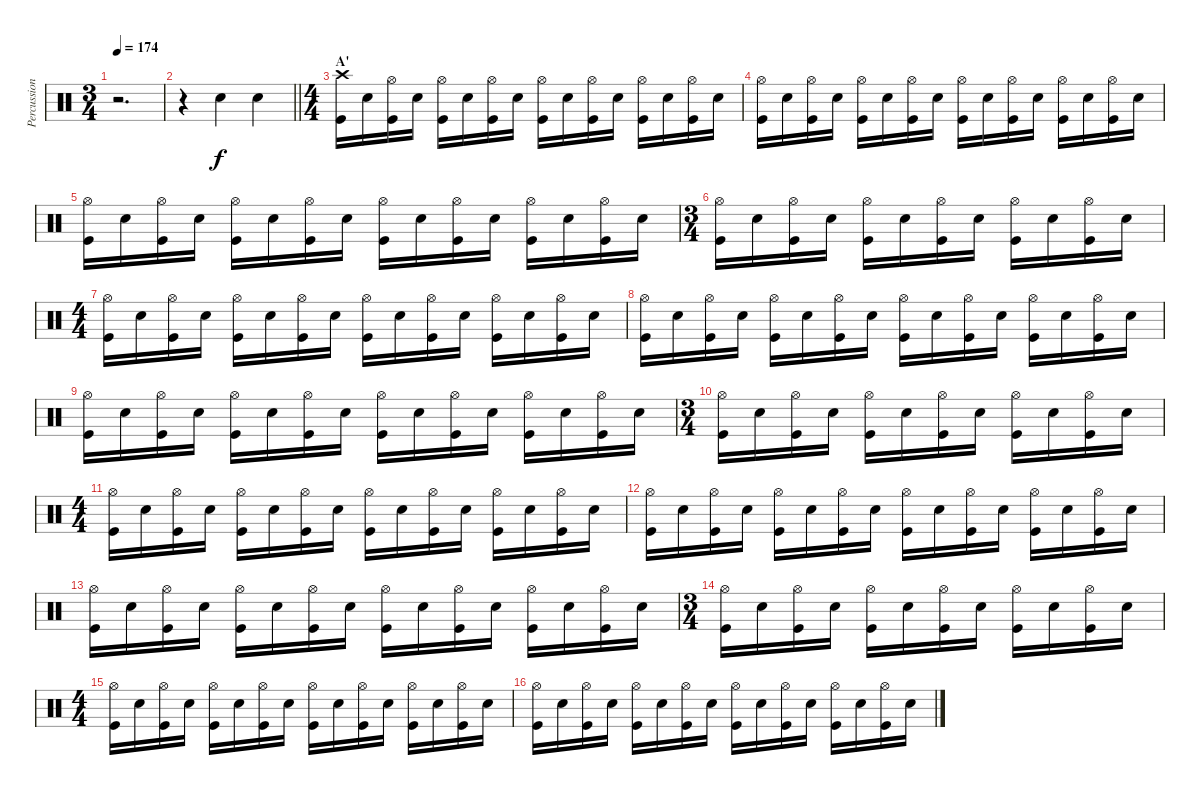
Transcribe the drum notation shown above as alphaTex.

\track ("Percussion" "Percussion") {instrument percussion}
\staff {score}
\articulation defaults
\ts (3 4)
\tempo 174
\clef neutral
\ks c
r.2{d dy f} |
\barLineRight lightlight
r.4 "Snare (hit) 2".4 "Snare (hit) 2".4 |
\ts (4 4)
\section ("" "A'")
("Crash high (hit)" "Kick (hit)").16 "Snare (hit) 2".16 ("Hi-Hat (open)" "Kick (hit)").16 "Snare (hit) 2".16 ("Hi-Hat (open)" "Kick (hit)").16 "Snare (hit) 2".16 ("Hi-Hat (open)" "Kick (hit)").16 "Snare (hit) 2".16 ("Hi-Hat (open)" "Kick (hit)").16 "Snare (hit) 2".16 ("Hi-Hat (open)" "Kick (hit)").16 "Snare (hit) 2".16 ("Hi-Hat (open)" "Kick (hit)").16 "Snare (hit) 2".16 ("Hi-Hat (open)" "Kick (hit)").16 "Snare (hit) 2".16 |
("Hi-Hat (open)" "Kick (hit)").16 "Snare (hit) 2".16 ("Hi-Hat (open)" "Kick (hit)").16 "Snare (hit) 2".16 ("Hi-Hat (open)" "Kick (hit)").16 "Snare (hit) 2".16 ("Hi-Hat (open)" "Kick (hit)").16 "Snare (hit) 2".16 ("Hi-Hat (open)" "Kick (hit)").16 "Snare (hit) 2".16 ("Hi-Hat (open)" "Kick (hit)").16 "Snare (hit) 2".16 ("Hi-Hat (open)" "Kick (hit)").16 "Snare (hit) 2".16 ("Hi-Hat (open)" "Kick (hit)").16 "Snare (hit) 2".16 |
("Hi-Hat (open)" "Kick (hit)").16 "Snare (hit) 2".16 ("Hi-Hat (open)" "Kick (hit)").16 "Snare (hit) 2".16 ("Hi-Hat (open)" "Kick (hit)").16 "Snare (hit) 2".16 ("Hi-Hat (open)" "Kick (hit)").16 "Snare (hit) 2".16 ("Hi-Hat (open)" "Kick (hit)").16 "Snare (hit) 2".16 ("Hi-Hat (open)" "Kick (hit)").16 "Snare (hit) 2".16 ("Hi-Hat (open)" "Kick (hit)").16 "Snare (hit) 2".16 ("Hi-Hat (open)" "Kick (hit)").16 "Snare (hit) 2".16 |
\ts (3 4)
("Hi-Hat (open)" "Kick (hit)").16 "Snare (hit) 2".16 ("Hi-Hat (open)" "Kick (hit)").16 "Snare (hit) 2".16 ("Hi-Hat (open)" "Kick (hit)").16 "Snare (hit) 2".16 ("Hi-Hat (open)" "Kick (hit)").16 "Snare (hit) 2".16 ("Hi-Hat (open)" "Kick (hit)").16 "Snare (hit) 2".16 ("Hi-Hat (open)" "Kick (hit)").16 "Snare (hit) 2".16 |
\ts (4 4)
("Hi-Hat (open)" "Kick (hit)").16 "Snare (hit) 2".16 ("Hi-Hat (open)" "Kick (hit)").16 "Snare (hit) 2".16 ("Hi-Hat (open)" "Kick (hit)").16 "Snare (hit) 2".16 ("Hi-Hat (open)" "Kick (hit)").16 "Snare (hit) 2".16 ("Hi-Hat (open)" "Kick (hit)").16 "Snare (hit) 2".16 ("Hi-Hat (open)" "Kick (hit)").16 "Snare (hit) 2".16 ("Hi-Hat (open)" "Kick (hit)").16 "Snare (hit) 2".16 ("Hi-Hat (open)" "Kick (hit)").16 "Snare (hit) 2".16 |
("Hi-Hat (open)" "Kick (hit)").16 "Snare (hit) 2".16 ("Hi-Hat (open)" "Kick (hit)").16 "Snare (hit) 2".16 ("Hi-Hat (open)" "Kick (hit)").16 "Snare (hit) 2".16 ("Hi-Hat (open)" "Kick (hit)").16 "Snare (hit) 2".16 ("Hi-Hat (open)" "Kick (hit)").16 "Snare (hit) 2".16 ("Hi-Hat (open)" "Kick (hit)").16 "Snare (hit) 2".16 ("Hi-Hat (open)" "Kick (hit)").16 "Snare (hit) 2".16 ("Hi-Hat (open)" "Kick (hit)").16 "Snare (hit) 2".16 |
("Hi-Hat (open)" "Kick (hit)").16 "Snare (hit) 2".16 ("Hi-Hat (open)" "Kick (hit)").16 "Snare (hit) 2".16 ("Hi-Hat (open)" "Kick (hit)").16 "Snare (hit) 2".16 ("Hi-Hat (open)" "Kick (hit)").16 "Snare (hit) 2".16 ("Hi-Hat (open)" "Kick (hit)").16 "Snare (hit) 2".16 ("Hi-Hat (open)" "Kick (hit)").16 "Snare (hit) 2".16 ("Hi-Hat (open)" "Kick (hit)").16 "Snare (hit) 2".16 ("Hi-Hat (open)" "Kick (hit)").16 "Snare (hit) 2".16 |
\ts (3 4)
("Hi-Hat (open)" "Kick (hit)").16 "Snare (hit) 2".16 ("Hi-Hat (open)" "Kick (hit)").16 "Snare (hit) 2".16 ("Hi-Hat (open)" "Kick (hit)").16 "Snare (hit) 2".16 ("Hi-Hat (open)" "Kick (hit)").16 "Snare (hit) 2".16 ("Hi-Hat (open)" "Kick (hit)").16 "Snare (hit) 2".16 ("Hi-Hat (open)" "Kick (hit)").16 "Snare (hit) 2".16 |
\ts (4 4)
("Hi-Hat (open)" "Kick (hit)").16 "Snare (hit) 2".16 ("Hi-Hat (open)" "Kick (hit)").16 "Snare (hit) 2".16 ("Hi-Hat (open)" "Kick (hit)").16 "Snare (hit) 2".16 ("Hi-Hat (open)" "Kick (hit)").16 "Snare (hit) 2".16 ("Hi-Hat (open)" "Kick (hit)").16 "Snare (hit) 2".16 ("Hi-Hat (open)" "Kick (hit)").16 "Snare (hit) 2".16 ("Hi-Hat (open)" "Kick (hit)").16 "Snare (hit) 2".16 ("Hi-Hat (open)" "Kick (hit)").16 "Snare (hit) 2".16 |
("Hi-Hat (open)" "Kick (hit)").16 "Snare (hit) 2".16 ("Hi-Hat (open)" "Kick (hit)").16 "Snare (hit) 2".16 ("Hi-Hat (open)" "Kick (hit)").16 "Snare (hit) 2".16 ("Hi-Hat (open)" "Kick (hit)").16 "Snare (hit) 2".16 ("Hi-Hat (open)" "Kick (hit)").16 "Snare (hit) 2".16 ("Hi-Hat (open)" "Kick (hit)").16 "Snare (hit) 2".16 ("Hi-Hat (open)" "Kick (hit)").16 "Snare (hit) 2".16 ("Hi-Hat (open)" "Kick (hit)").16 "Snare (hit) 2".16 |
("Hi-Hat (open)" "Kick (hit)").16 "Snare (hit) 2".16 ("Hi-Hat (open)" "Kick (hit)").16 "Snare (hit) 2".16 ("Hi-Hat (open)" "Kick (hit)").16 "Snare (hit) 2".16 ("Hi-Hat (open)" "Kick (hit)").16 "Snare (hit) 2".16 ("Hi-Hat (open)" "Kick (hit)").16 "Snare (hit) 2".16 ("Hi-Hat (open)" "Kick (hit)").16 "Snare (hit) 2".16 ("Hi-Hat (open)" "Kick (hit)").16 "Snare (hit) 2".16 ("Hi-Hat (open)" "Kick (hit)").16 "Snare (hit) 2".16 |
\ts (3 4)
("Hi-Hat (open)" "Kick (hit)").16 "Snare (hit) 2".16 ("Hi-Hat (open)" "Kick (hit)").16 "Snare (hit) 2".16 ("Hi-Hat (open)" "Kick (hit)").16 "Snare (hit) 2".16 ("Hi-Hat (open)" "Kick (hit)").16 "Snare (hit) 2".16 ("Hi-Hat (open)" "Kick (hit)").16 "Snare (hit) 2".16 ("Hi-Hat (open)" "Kick (hit)").16 "Snare (hit) 2".16 |
\ts (4 4)
("Hi-Hat (open)" "Kick (hit)").16 "Snare (hit) 2".16 ("Hi-Hat (open)" "Kick (hit)").16 "Snare (hit) 2".16 ("Hi-Hat (open)" "Kick (hit)").16 "Snare (hit) 2".16 ("Hi-Hat (open)" "Kick (hit)").16 "Snare (hit) 2".16 ("Hi-Hat (open)" "Kick (hit)").16 "Snare (hit) 2".16 ("Hi-Hat (open)" "Kick (hit)").16 "Snare (hit) 2".16 ("Hi-Hat (open)" "Kick (hit)").16 "Snare (hit) 2".16 ("Hi-Hat (open)" "Kick (hit)").16 "Snare (hit) 2".16 |
("Hi-Hat (open)" "Kick (hit)").16 "Snare (hit) 2".16 ("Hi-Hat (open)" "Kick (hit)").16 "Snare (hit) 2".16 ("Hi-Hat (open)" "Kick (hit)").16 "Snare (hit) 2".16 ("Hi-Hat (open)" "Kick (hit)").16 "Snare (hit) 2".16 ("Hi-Hat (open)" "Kick (hit)").16 "Snare (hit) 2".16 ("Hi-Hat (open)" "Kick (hit)").16 "Snare (hit) 2".16 ("Hi-Hat (open)" "Kick (hit)").16 "Snare (hit) 2".16 ("Hi-Hat (open)" "Kick (hit)").16 "Snare (hit) 2".16
